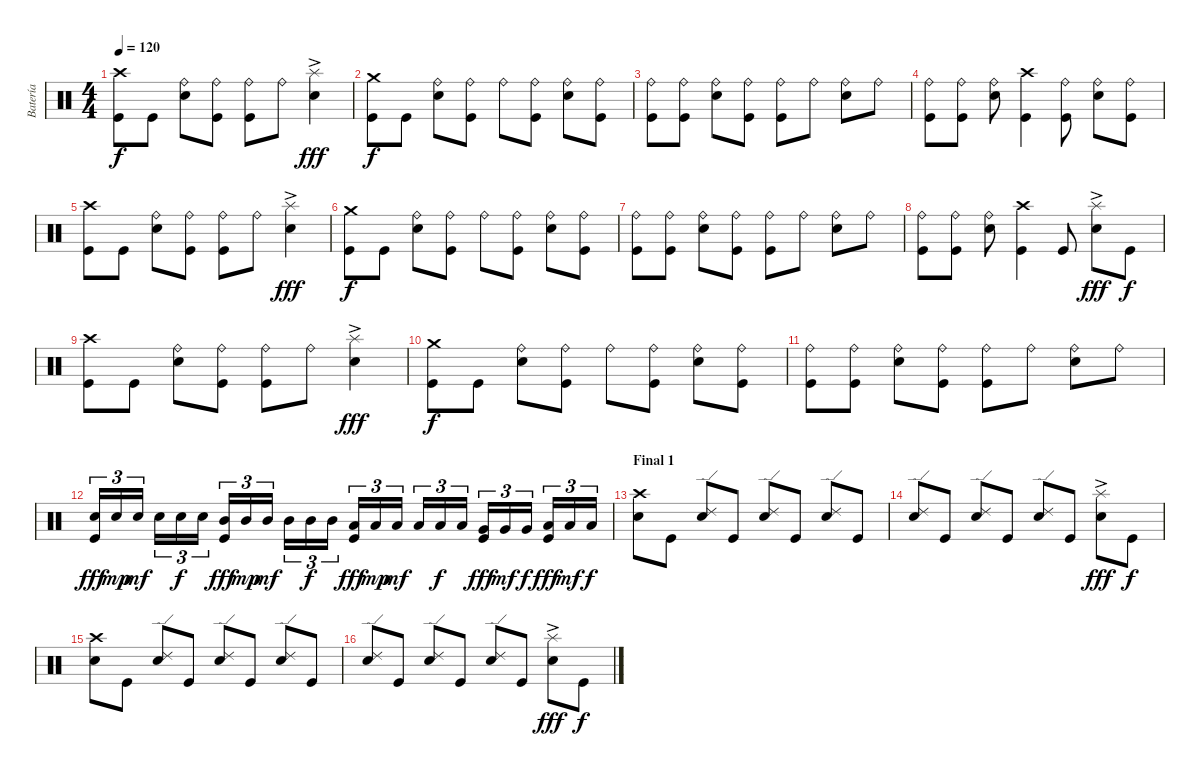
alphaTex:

\track ("Batería" "Batería") {instrument percussion}
\staff {score}
\articulation defaults
\ts (4 4)
\tempo 120
\clef neutral
\ks c
("Kick (hit)" "Crash high (hit)").8{dy f} "Kick (hit)".8 ("Electric Snare (hit)" "Ride (bell)").8 ("Kick (hit)" "Ride (bell)").8 ("Kick (hit)" "Ride (bell)").8 "Ride (bell)".8 ("Electric Snare (hit)" "Splash (hit)"{ac}).4{dy fff} |
("Kick (hit)" "Crash medium (hit)").8{dy f} "Kick (hit)".8 ("Electric Snare (hit)" "Ride (bell)").8 ("Kick (hit)" "Ride (bell)").8 "Ride (bell)".8 ("Kick (hit)" "Ride (bell)").8 ("Electric Snare (hit)" "Ride (bell)").8 ("Kick (hit)" "Ride (bell)").8 |
("Kick (hit)" "Ride (bell)").8 ("Kick (hit)" "Ride (bell)").8 ("Electric Snare (hit)" "Ride (bell)").8 ("Kick (hit)" "Ride (bell)").8 ("Kick (hit)" "Ride (bell)").8 "Ride (bell)".8 ("Electric Snare (hit)" "Ride (bell)").8 "Ride (bell)".8 |
("Kick (hit)" "Ride (bell)").8 ("Kick (hit)" "Ride (bell)").8 ("Electric Snare (hit)" "Ride (bell)").8 ("Kick (hit)" "Crash high (hit)").4 ("Kick (hit)" "Ride (bell)").8 ("Electric Snare (hit)" "Ride (bell)").8 ("Kick (hit)" "Ride (bell)").8 |
("Kick (hit)" "Crash high (hit)").8 "Kick (hit)".8 ("Electric Snare (hit)" "Ride (bell)").8 ("Kick (hit)" "Ride (bell)").8 ("Kick (hit)" "Ride (bell)").8 "Ride (bell)".8 ("Electric Snare (hit)" "Splash (hit)"{ac}).4{dy fff} |
("Kick (hit)" "Crash medium (hit)").8{dy f} "Kick (hit)".8 ("Electric Snare (hit)" "Ride (bell)").8 ("Kick (hit)" "Ride (bell)").8 "Ride (bell)".8 ("Kick (hit)" "Ride (bell)").8 ("Electric Snare (hit)" "Ride (bell)").8 ("Kick (hit)" "Ride (bell)").8 |
("Kick (hit)" "Ride (bell)").8 ("Kick (hit)" "Ride (bell)").8 ("Electric Snare (hit)" "Ride (bell)").8 ("Kick (hit)" "Ride (bell)").8 ("Kick (hit)" "Ride (bell)").8 "Ride (bell)".8 ("Electric Snare (hit)" "Ride (bell)").8 "Ride (bell)".8 |
("Kick (hit)" "Ride (bell)").8 ("Kick (hit)" "Ride (bell)").8 ("Electric Snare (hit)" "Ride (bell)").8 ("Kick (hit)" "Crash high (hit)").4 "Kick (hit)".8 ("Electric Snare (hit)" "Splash (hit)"{ac}).8{dy fff} "Kick (hit)".8{dy f} |
("Kick (hit)" "Crash high (hit)").8 "Kick (hit)".8 ("Electric Snare (hit)" "Ride (bell)").8 ("Kick (hit)" "Ride (bell)").8 ("Kick (hit)" "Ride (bell)").8 "Ride (bell)".8 ("Electric Snare (hit)" "Splash (hit)"{ac}).4{dy fff} |
("Kick (hit)" "Crash medium (hit)").8{dy f} "Kick (hit)".8 ("Electric Snare (hit)" "Ride (bell)").8 ("Kick (hit)" "Ride (bell)").8 "Ride (bell)".8 ("Kick (hit)" "Ride (bell)").8 ("Electric Snare (hit)" "Ride (bell)").8 ("Kick (hit)" "Ride (bell)").8 |
("Kick (hit)" "Ride (bell)").8 ("Kick (hit)" "Ride (bell)").8 ("Electric Snare (hit)" "Ride (bell)").8 ("Kick (hit)" "Ride (bell)").8 ("Kick (hit)" "Ride (bell)").8 "Ride (bell)".8 ("Electric Snare (hit)" "Ride (bell)").8 "Ride (bell)".8 |
("Kick (hit)" "Electric Snare (hit)").16{tu (3 2) dy fff} "Electric Snare (hit)".16{tu (3 2) dy mp} "Electric Snare (hit)".16{tu (3 2) dy mf} "Electric Snare (hit)".16{tu (3 2)} "Electric Snare (hit)".16{tu (3 2) dy f} "Electric Snare (hit)".16{tu (3 2)} ("Kick (hit)" "Mid Tom (hit)").16{tu (3 2) dy fff} "Mid Tom (hit)".16{tu (3 2) dy mp} "Mid Tom (hit)".16{tu (3 2) dy mf} "Mid Tom (hit)".16{tu (3 2)} "Mid Tom (hit)".16{tu (3 2) dy f} "Mid Tom (hit)".16{tu (3 2)} ("Kick (hit)" "Low Tom (hit)").16{tu (3 2) dy fff} "Low Tom (hit)".16{tu (3 2) dy mp} "Low Tom (hit)".16{tu (3 2) dy mf} "Low Tom (hit)".16{tu (3 2)} "Low Tom (hit)".16{tu (3 2) dy f} "Low Tom (hit)".16{tu (3 2)} ("Kick (hit)" "Very Low Tom (hit)").16{tu (3 2) dy fff} "Very Low Tom (hit)".16{tu (3 2) dy mf} "Very Low Tom (hit)".16{tu (3 2) dy f} ("Kick (hit)" "Low Floor Tom (hit)").16{tu (3 2) dy fff} "Low Floor Tom (hit)".16{tu (3 2) dy mf} "Low Floor Tom (hit)".16{tu (3 2) dy f} |
\section ("" "Final 1")
("Electric Snare (hit)" "Crash high (hit)").8 "Kick (hit)".8 ("Electric Snare (hit)" "Ride (edge) 2").8 "Kick (hit)".8 ("Electric Snare (hit)" "Ride (edge) 2").8 "Kick (hit)".8 ("Electric Snare (hit)" "Ride (edge) 2").8 "Kick (hit)".8 |
("Electric Snare (hit)" "Ride (edge) 2").8 "Kick (hit)".8 ("Electric Snare (hit)" "Ride (edge) 2").8 "Kick (hit)".8 ("Electric Snare (hit)" "Ride (edge) 2").8 "Kick (hit)".8 ("Electric Snare (hit)" "Splash (hit)"{ac}).8{dy fff} "Kick (hit)".8{dy f} |
("Electric Snare (hit)" "Crash high (hit)").8 "Kick (hit)".8 ("Electric Snare (hit)" "Ride (edge) 2").8 "Kick (hit)".8 ("Electric Snare (hit)" "Ride (edge) 2").8 "Kick (hit)".8 ("Electric Snare (hit)" "Ride (edge) 2").8 "Kick (hit)".8 |
("Electric Snare (hit)" "Ride (edge) 2").8 "Kick (hit)".8 ("Electric Snare (hit)" "Ride (edge) 2").8 "Kick (hit)".8 ("Electric Snare (hit)" "Ride (edge) 2").8 "Kick (hit)".8 ("Electric Snare (hit)" "Splash (hit)"{ac}).8{dy fff} "Kick (hit)".8{dy f}
